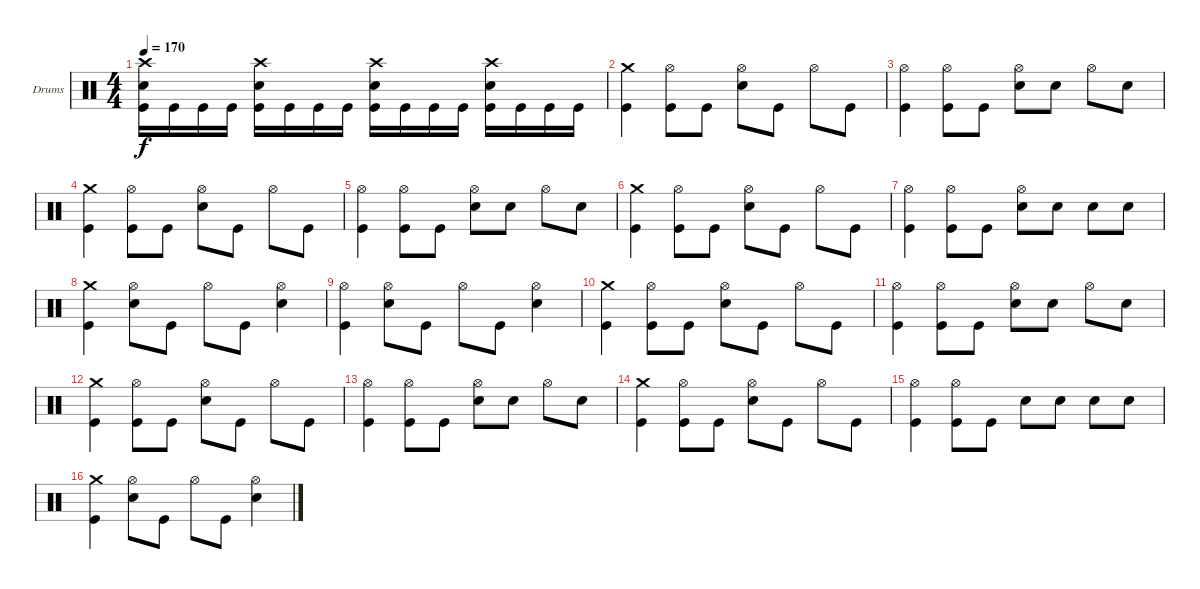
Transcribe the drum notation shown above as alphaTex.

\bracketExtendMode groupsimilarinstruments
\firstSystemTrackNameOrientation horizontal
\otherSystemsTrackNameOrientation horizontal
\track ("Дмитрий Кривенков" "Drums") {instrument percussion}
\staff {score}
\articulation defaults
\ts (4 4)
\tempo 170
\clef neutral
\ks c
("Crash high (hit)" "Snare (hit) 2" "Kick (hit)").16{dy f} "Kick (hit)".16 "Kick (hit)".16 "Kick (hit)".16 ("Crash high (hit)" "Snare (hit) 2" "Kick (hit)").16 "Kick (hit)".16 "Kick (hit)".16 "Kick (hit)".16 ("Crash high (hit)" "Snare (hit) 2" "Kick (hit)").16 "Kick (hit)".16 "Kick (hit)".16 "Kick (hit)".16 ("Crash high (hit)" "Snare (hit) 2" "Kick (hit)").16 "Kick (hit)".16 "Kick (hit)".16 "Kick (hit)".16 |
("Crash medium (hit)" "Kick (hit)").4 ("Hi-Hat (open)" "Kick (hit)").8 "Kick (hit)".8 ("Hi-Hat (open)" "Snare (hit) 2").8 "Kick (hit)".8 "Hi-Hat (open)".8 "Kick (hit)".8 |
("Hi-Hat (open)" "Kick (hit)").4 ("Hi-Hat (open)" "Kick (hit)").8 "Kick (hit)".8 ("Hi-Hat (open)" "Snare (hit) 2").8 "Snare (hit) 2".8 "Hi-Hat (open)".8 "Snare (hit) 2".8 |
("Crash medium (hit)" "Kick (hit)").4 ("Hi-Hat (open)" "Kick (hit)").8 "Kick (hit)".8 ("Hi-Hat (open)" "Snare (hit) 2").8 "Kick (hit)".8 "Hi-Hat (open)".8 "Kick (hit)".8 |
("Hi-Hat (open)" "Kick (hit)").4 ("Hi-Hat (open)" "Kick (hit)").8 "Kick (hit)".8 ("Hi-Hat (open)" "Snare (hit) 2").8 "Snare (hit) 2".8 "Hi-Hat (open)".8 "Snare (hit) 2".8 |
("Crash medium (hit)" "Kick (hit)").4 ("Hi-Hat (open)" "Kick (hit)").8 "Kick (hit)".8 ("Hi-Hat (open)" "Snare (hit) 2").8 "Kick (hit)".8 "Hi-Hat (open)".8 "Kick (hit)".8 |
("Hi-Hat (open)" "Kick (hit)").4 ("Hi-Hat (open)" "Kick (hit)").8 "Kick (hit)".8 ("Hi-Hat (open)" "Snare (hit) 2").8 "Snare (hit) 2".8 "Snare (hit) 2".8 "Snare (hit) 2".8 |
("Crash medium (hit)" "Kick (hit)").4 ("Hi-Hat (open)" "Snare (hit) 2").8 "Kick (hit)".8 "Hi-Hat (open)".8 "Kick (hit)".8 ("Hi-Hat (open)" "Snare (hit) 2").4 |
("Hi-Hat (open)" "Kick (hit)").4 ("Hi-Hat (open)" "Snare (hit) 2").8 "Kick (hit)".8 "Hi-Hat (open)".8 "Kick (hit)".8 ("Hi-Hat (open)" "Snare (hit) 2").4 |
("Crash medium (hit)" "Kick (hit)").4 ("Hi-Hat (open)" "Kick (hit)").8 "Kick (hit)".8 ("Hi-Hat (open)" "Snare (hit) 2").8 "Kick (hit)".8 "Hi-Hat (open)".8 "Kick (hit)".8 |
("Hi-Hat (open)" "Kick (hit)").4 ("Hi-Hat (open)" "Kick (hit)").8 "Kick (hit)".8 ("Hi-Hat (open)" "Snare (hit) 2").8 "Snare (hit) 2".8 "Hi-Hat (open)".8 "Snare (hit) 2".8 |
("Crash medium (hit)" "Kick (hit)").4 ("Hi-Hat (open)" "Kick (hit)").8 "Kick (hit)".8 ("Hi-Hat (open)" "Snare (hit) 2").8 "Kick (hit)".8 "Hi-Hat (open)".8 "Kick (hit)".8 |
("Hi-Hat (open)" "Kick (hit)").4 ("Hi-Hat (open)" "Kick (hit)").8 "Kick (hit)".8 ("Hi-Hat (open)" "Snare (hit) 2").8 "Snare (hit) 2".8 "Hi-Hat (open)".8 "Snare (hit) 2".8 |
("Crash medium (hit)" "Kick (hit)").4 ("Hi-Hat (open)" "Kick (hit)").8 "Kick (hit)".8 ("Hi-Hat (open)" "Snare (hit) 2").8 "Kick (hit)".8 "Hi-Hat (open)".8 "Kick (hit)".8 |
("Hi-Hat (open)" "Kick (hit)").4 ("Hi-Hat (open)" "Kick (hit)").8 "Kick (hit)".8 "Snare (hit) 2".8 "Snare (hit) 2".8 "Snare (hit) 2".8 "Snare (hit) 2".8 |
("Crash medium (hit)" "Kick (hit)").4 ("Hi-Hat (open)" "Snare (hit) 2").8 "Kick (hit)".8 "Hi-Hat (open)".8 "Kick (hit)".8 ("Hi-Hat (open)" "Snare (hit) 2").4
